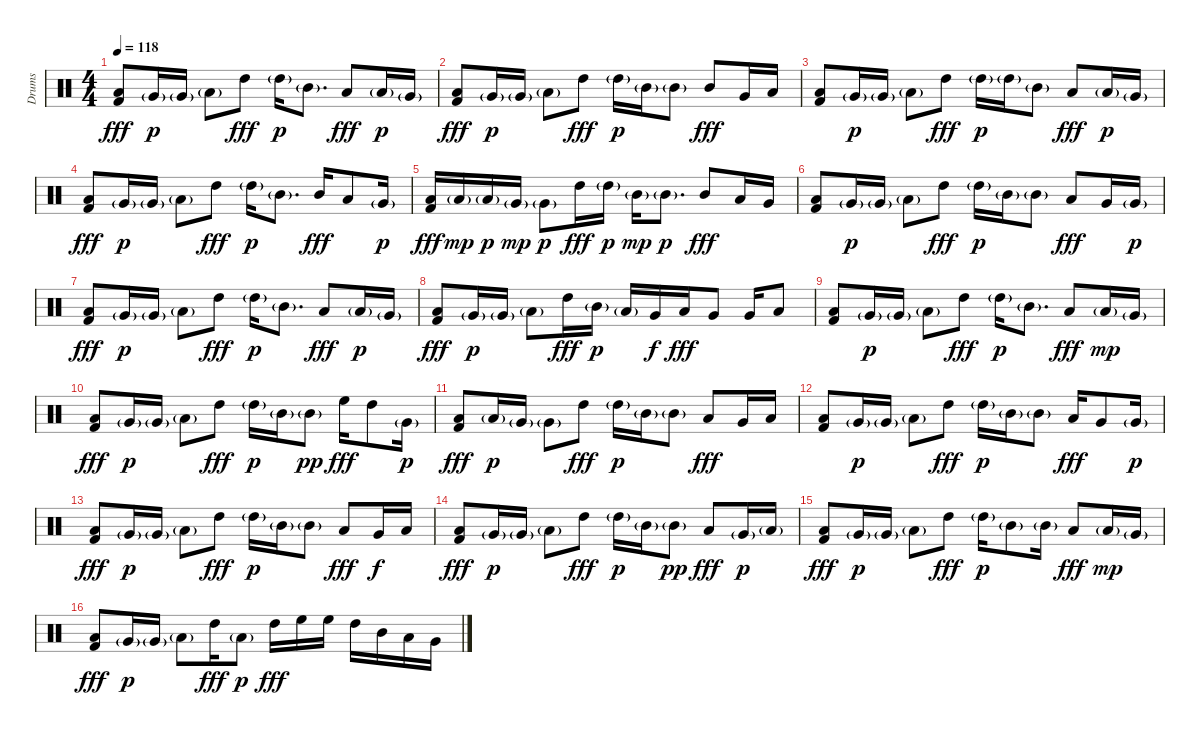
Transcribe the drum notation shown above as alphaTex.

\track ("Drums" "Drums") {instrument percussion}
\staff {score}
\articulation defaults
\ts (4 4)
\tempo 118
\clef neutral
\ks c
("Low Floor Tom (hit)" "Kick (hit) 2").8{dy fff} "Very Low Tom (hit)"{g}.16{dy p} "Very Low Tom (hit)"{g}.16 "Low Floor Tom (hit)"{g}.8 "High Tom (hit)".8{dy fff} "High Tom (hit)"{g}.16{dy p} "Mid Tom (hit)"{g}.8{d} "Low Tom (hit)".8{dy fff} "Low Tom (hit)"{g}.16{dy p} "Very Low Tom (hit)"{g}.16 |
("Low Floor Tom (hit)" "Kick (hit) 2").8{dy fff} "Very Low Tom (hit)"{g}.16{dy p} "Very Low Tom (hit)"{g}.16 "Low Floor Tom (hit)"{g}.8 "High Tom (hit)".8{dy fff} "High Tom (hit)"{g}.16{dy p} "Mid Tom (hit)"{g}.16 "Mid Tom (hit)"{g}.8 "Mid Tom (hit)".8{dy fff} "Very Low Tom (hit)".16 "Low Tom (hit)".16 |
("Low Floor Tom (hit)" "Kick (hit) 2").8 "Very Low Tom (hit)"{g}.16{dy p} "Very Low Tom (hit)"{g}.16 "Low Floor Tom (hit)"{g}.8 "High Tom (hit)".8{dy fff} "High Tom (hit)"{g}.16{dy p} "High Tom (hit)"{g}.16 "Mid Tom (hit)"{g}.8 "Low Tom (hit)".8{dy fff} "Low Tom (hit)"{g}.16{dy p} "Very Low Tom (hit)"{g}.16 |
("Low Floor Tom (hit)" "Kick (hit) 2").8{dy fff} "Very Low Tom (hit)"{g}.16{dy p} "Very Low Tom (hit)"{g}.16 "Low Floor Tom (hit)"{g}.8 "High Tom (hit)".8{dy fff} "High Tom (hit)"{g}.16{dy p} "Mid Tom (hit)"{g}.8{d} "Mid Tom (hit)".16{dy fff} "Low Tom (hit)".8 "Very Low Tom (hit)"{g}.16{dy p} |
("Low Floor Tom (hit)" "Kick (hit) 2").16{dy fff} "Low Floor Tom (hit)"{g}.16{dy mp} "Low Floor Tom (hit)"{g}.16{dy p} "Very Low Tom (hit)"{g}.16{dy mp} "Very Low Tom (hit)"{g}.8{dy p} "High Tom (hit)".16{dy fff} "High Tom (hit)"{g}.16{dy p} "Mid Tom (hit)"{g}.16{dy mp} "Mid Tom (hit)"{g}.8{d dy p} "Mid Tom (hit)".8{dy fff} "Low Tom (hit)".16 "Very Low Tom (hit)".16 |
("Low Floor Tom (hit)" "Kick (hit) 2").8 "Very Low Tom (hit)"{g}.16{dy p} "Very Low Tom (hit)"{g}.16 "Low Floor Tom (hit)"{g}.8 "High Tom (hit)".8{dy fff} "High Tom (hit)"{g}.16{dy p} "Mid Tom (hit)"{g}.16 "Mid Tom (hit)"{g}.8 "Low Tom (hit)".8{dy fff} "Very Low Tom (hit)".16 "Very Low Tom (hit)"{g}.16{dy p} |
("Low Floor Tom (hit)" "Kick (hit) 2").8{dy fff} "Very Low Tom (hit)"{g}.16{dy p} "Very Low Tom (hit)"{g}.16 "Low Floor Tom (hit)"{g}.8 "High Tom (hit)".8{dy fff} "High Tom (hit)"{g}.16{dy p} "Mid Tom (hit)"{g}.8{d} "Low Tom (hit)".8{dy fff} "Low Tom (hit)"{g}.16{dy p} "Very Low Tom (hit)"{g}.16 |
("Low Floor Tom (hit)" "Kick (hit) 2").8{dy fff} "Very Low Tom (hit)"{g}.16{dy p} "Very Low Tom (hit)"{g}.16 "Low Floor Tom (hit)"{g}.8 "High Tom (hit)".16{dy fff} "Mid Tom (hit)"{g}.16{dy p} "Low Tom (hit)"{g}.16 "Very Low Tom (hit)".16{dy f} "Low Tom (hit)".16{dy fff} "Very Low Tom (hit)".8 "Very Low Tom (hit)".16 "Low Floor Tom (hit)".8 |
("Low Floor Tom (hit)" "Kick (hit) 2").8 "Very Low Tom (hit)"{g}.16{dy p} "Very Low Tom (hit)"{g}.16 "Low Floor Tom (hit)"{g}.8 "High Tom (hit)".8{dy fff} "High Tom (hit)"{g}.16{dy p} "Mid Tom (hit)"{g}.8{d} "Low Tom (hit)".8{dy fff} "Low Tom (hit)"{g}.16{dy mp} "Very Low Tom (hit)"{g}.16 |
("Low Floor Tom (hit)" "Kick (hit) 2").8{dy fff} "Very Low Tom (hit)"{g}.16{dy p} "Very Low Tom (hit)"{g}.16 "Low Floor Tom (hit)"{g}.8 "High Tom (hit)".8{dy fff} "High Tom (hit)"{g}.16{dy p} "Mid Tom (hit)"{g}.16 "Mid Tom (hit)"{g}.8{dy pp} "High Floor Tom (hit)".16{dy fff} "High Tom (hit)".8 "Very Low Tom (hit)"{g}.16{dy p} |
("Low Floor Tom (hit)" "Kick (hit) 2").8{dy fff} "Low Floor Tom (hit)"{g}.16{dy p} "Very Low Tom (hit)"{g}.16 "Very Low Tom (hit)"{g}.8 "High Tom (hit)".8{dy fff} "High Tom (hit)"{g}.16{dy p} "Mid Tom (hit)"{g}.16 "Mid Tom (hit)"{g}.8 "Low Tom (hit)".8{dy fff} "Very Low Tom (hit)".16 "Low Tom (hit)".16 |
("Low Floor Tom (hit)" "Kick (hit) 2").8 "Very Low Tom (hit)"{g}.16{dy p} "Very Low Tom (hit)"{g}.16 "Low Floor Tom (hit)"{g}.8 "High Tom (hit)".8{dy fff} "High Tom (hit)"{g}.16{dy p} "Mid Tom (hit)"{g}.16 "Mid Tom (hit)"{g}.8 "Low Tom (hit)".16{dy fff} "Very Low Tom (hit)".8 "Very Low Tom (hit)"{g}.16{dy p} |
("Low Floor Tom (hit)" "Kick (hit) 2").8{dy fff} "Very Low Tom (hit)"{g}.16{dy p} "Very Low Tom (hit)"{g}.16 "Low Floor Tom (hit)"{g}.8 "High Tom (hit)".8{dy fff} "High Tom (hit)"{g}.16{dy p} "Mid Tom (hit)"{g}.16 "Mid Tom (hit)"{g}.8 "Low Tom (hit)".8{dy fff} "Very Low Tom (hit)".16{dy f} "Low Tom (hit)".16 |
("Low Floor Tom (hit)" "Kick (hit) 2").8{dy fff} "Very Low Tom (hit)"{g}.16{dy p} "Very Low Tom (hit)"{g}.16 "Low Floor Tom (hit)"{g}.8 "High Tom (hit)".8{dy fff} "High Tom (hit)"{g}.16{dy p} "Mid Tom (hit)"{g}.16 "Mid Tom (hit)"{g}.8{dy pp} "Low Tom (hit)".8{dy fff} "Very Low Tom (hit)"{g}.16{dy p} "Low Tom (hit)"{g}.16 |
("Low Floor Tom (hit)" "Kick (hit) 2").8{dy fff} "Very Low Tom (hit)"{g}.16{dy p} "Very Low Tom (hit)"{g}.16 "Low Floor Tom (hit)"{g}.8 "High Tom (hit)".8{dy fff} "High Tom (hit)"{g}.16{dy p} "Mid Tom (hit)"{g}.8 "Mid Tom (hit)"{g}.16 "Low Tom (hit)".8{dy fff} "Low Tom (hit)"{g}.16{dy mp} "Very Low Tom (hit)"{g}.16 |
("Low Floor Tom (hit)" "Kick (hit) 2").8{dy fff} "Very Low Tom (hit)"{g}.16{dy p} "Very Low Tom (hit)"{g}.16 "Low Floor Tom (hit)"{g}.8 "High Tom (hit)".16{dy fff} "Low Tom (hit)"{g}.8{dy p} "High Tom (hit)".16{dy fff} "High Floor Tom (hit)".16 "High Floor Tom (hit)".16 "High Tom (hit)".16 "Mid Tom (hit)".16 "Low Tom (hit)".16 "Very Low Tom (hit)".16
